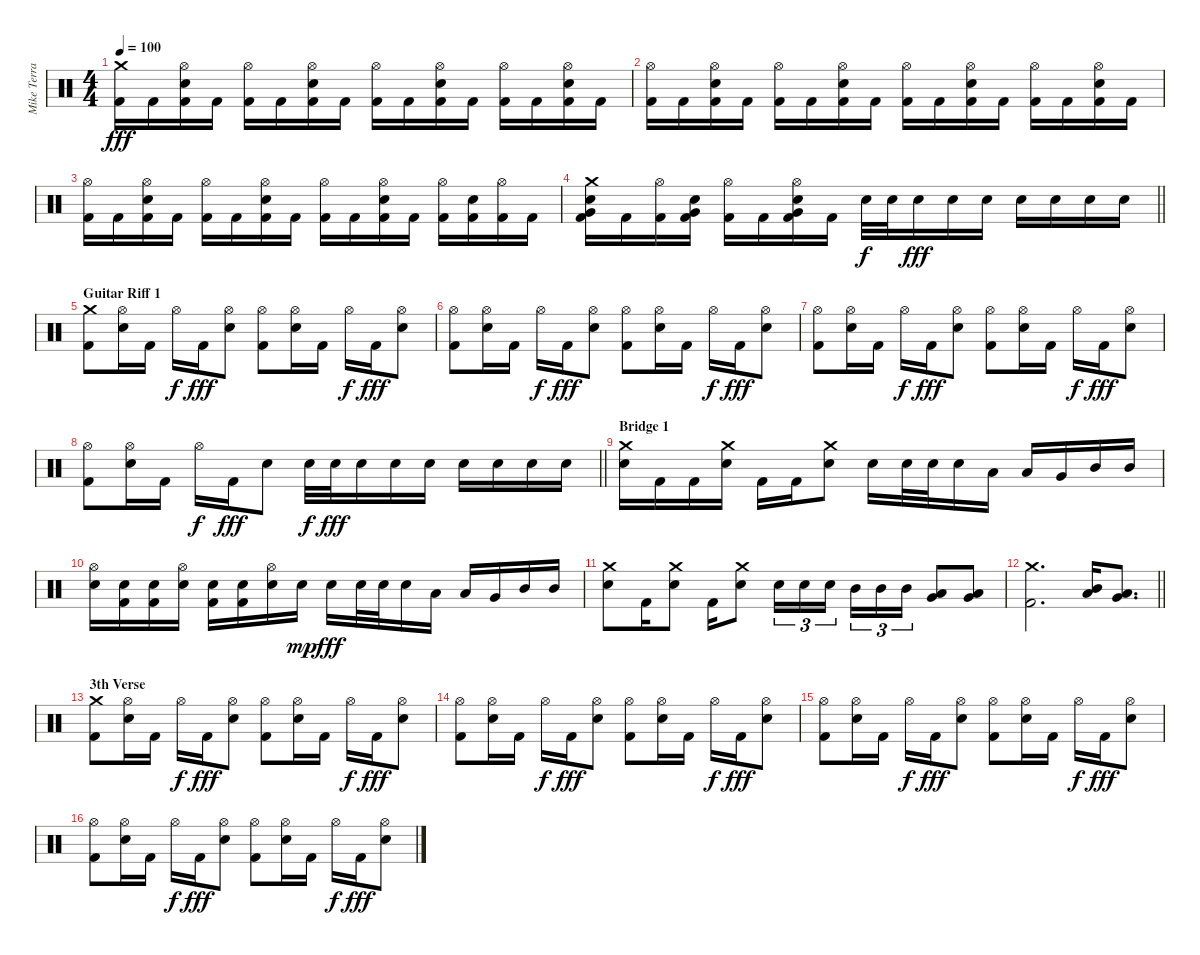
\track ("Mike Terrana" "Mike Terra") {instrument percussion}
\staff {score}
\articulation defaults
\ts (4 4)
\tempo 100
\clef neutral
\ks c
("Crash medium (hit)" "Kick (hit) 2").16{dy fff} "Kick (hit) 2".16 ("Hi-Hat (open)" "Snare (hit) 2" "Kick (hit) 2").16 "Kick (hit) 2".16 ("Hi-Hat (open)" "Kick (hit) 2").16 "Kick (hit) 2".16 ("Hi-Hat (open)" "Snare (hit) 2" "Kick (hit) 2").16 "Kick (hit) 2".16 ("Hi-Hat (open)" "Kick (hit) 2").16 "Kick (hit) 2".16 ("Hi-Hat (open)" "Snare (hit) 2" "Kick (hit) 2").16 "Kick (hit) 2".16 ("Hi-Hat (open)" "Kick (hit) 2").16 "Kick (hit) 2".16 ("Hi-Hat (open)" "Snare (hit) 2" "Kick (hit) 2").16 "Kick (hit) 2".16 |
("Hi-Hat (open)" "Kick (hit) 2").16 "Kick (hit) 2".16 ("Hi-Hat (open)" "Snare (hit) 2" "Kick (hit) 2").16 "Kick (hit) 2".16 ("Hi-Hat (open)" "Kick (hit) 2").16 "Kick (hit) 2".16 ("Hi-Hat (open)" "Snare (hit) 2" "Kick (hit) 2").16 "Kick (hit) 2".16 ("Hi-Hat (open)" "Kick (hit) 2").16 "Kick (hit) 2".16 ("Hi-Hat (open)" "Snare (hit) 2" "Kick (hit) 2").16 "Kick (hit) 2".16 ("Hi-Hat (open)" "Kick (hit) 2").16 "Kick (hit) 2".16 ("Hi-Hat (open)" "Snare (hit) 2" "Kick (hit) 2").16 "Kick (hit) 2".16 |
("Hi-Hat (open)" "Kick (hit) 2").16 "Kick (hit) 2".16 ("Hi-Hat (open)" "Snare (hit) 2" "Kick (hit) 2").16 "Kick (hit) 2".16 ("Hi-Hat (open)" "Kick (hit) 2").16 "Kick (hit) 2".16 ("Hi-Hat (open)" "Snare (hit) 2" "Kick (hit) 2").16 "Kick (hit) 2".16 ("Hi-Hat (open)" "Kick (hit) 2").16 "Kick (hit) 2".16 ("Hi-Hat (open)" "Snare (hit) 2" "Kick (hit) 2").16 "Kick (hit) 2".16 ("Hi-Hat (open)" "Kick (hit) 2").16 ("Snare (hit) 2" "Kick (hit) 2").16 ("Hi-Hat (open)" "Kick (hit) 2").16 "Kick (hit) 2".16 |
\barLineRight lightlight
("Crash medium (hit)" "Snare (hit) 2" "Very Low Tom (hit)" "Kick (hit) 2").16 "Kick (hit) 2".16 ("Hi-Hat (open)" "Kick (hit) 2").16 ("Snare (hit) 2" "Very Low Tom (hit)" "Kick (hit) 2").16 ("Hi-Hat (open)" "Kick (hit) 2").16 "Kick (hit) 2".16 ("Hi-Hat (open)" "Snare (hit) 2" "Very Low Tom (hit)" "Kick (hit) 2").16 "Kick (hit) 2".16 "Snare (hit) 2".32{dy f} "Snare (hit) 2".32 "Snare (hit) 2".16{dy fff} "Snare (hit) 2".16 "Snare (hit) 2".16 "Snare (hit) 2".16 "Snare (hit) 2".16 "Snare (hit) 2".16 "Snare (hit) 2".16 |
\section ("" "Guitar Riff 1")
("Crash medium (hit)" "Kick (hit) 2").8 ("Hi-Hat (open)" "Snare (hit) 2").16 "Kick (hit) 2".16 "Hi-Hat (open)".16{dy f} "Kick (hit) 2".16{dy fff} ("Hi-Hat (open)" "Snare (hit) 2").8 ("Hi-Hat (open)" "Kick (hit) 2").8 ("Hi-Hat (open)" "Snare (hit) 2").16 "Kick (hit) 2".16 "Hi-Hat (open)".16{dy f} "Kick (hit) 2".16{dy fff} ("Hi-Hat (open)" "Snare (hit) 2").8 |
("Hi-Hat (open)" "Kick (hit) 2").8 ("Hi-Hat (open)" "Snare (hit) 2").16 "Kick (hit) 2".16 "Hi-Hat (open)".16{dy f} "Kick (hit) 2".16{dy fff} ("Hi-Hat (open)" "Snare (hit) 2").8 ("Hi-Hat (open)" "Kick (hit) 2").8 ("Hi-Hat (open)" "Snare (hit) 2").16 "Kick (hit) 2".16 "Hi-Hat (open)".16{dy f} "Kick (hit) 2".16{dy fff} ("Hi-Hat (open)" "Snare (hit) 2").8 |
("Hi-Hat (open)" "Kick (hit) 2").8 ("Hi-Hat (open)" "Snare (hit) 2").16 "Kick (hit) 2".16 "Hi-Hat (open)".16{dy f} "Kick (hit) 2".16{dy fff} ("Hi-Hat (open)" "Snare (hit) 2").8 ("Hi-Hat (open)" "Kick (hit) 2").8 ("Hi-Hat (open)" "Snare (hit) 2").16 "Kick (hit) 2".16 "Hi-Hat (open)".16{dy f} "Kick (hit) 2".16{dy fff} ("Hi-Hat (open)" "Snare (hit) 2").8 |
\barLineRight lightlight
("Hi-Hat (open)" "Kick (hit) 2").8 ("Hi-Hat (open)" "Snare (hit) 2").16 "Kick (hit) 2".16 "Hi-Hat (open)".16{dy f} "Kick (hit) 2".16{dy fff} "Snare (hit) 2".8 "Snare (hit) 2".32{dy f} "Snare (hit) 2".32{dy fff} "Snare (hit) 2".16 "Snare (hit) 2".16 "Snare (hit) 2".16 "Snare (hit) 2".16 "Snare (hit) 2".16 "Snare (hit) 2".16 "Snare (hit) 2".16 |
\section ("" "Bridge 1")
("Crash medium (hit)" "Snare (hit) 2").16 "Kick (hit) 2".16 "Kick (hit) 2".16 ("Crash medium (hit)" "Snare (hit) 2").16 "Kick (hit) 2".16 "Kick (hit) 2".16 ("Crash medium (hit)" "Snare (hit) 2").8 "Snare (hit) 2".16 "Snare (hit) 2".32 "Snare (hit) 2".32 "Snare (hit) 2".16 "Low Tom (hit)".16 "Low Tom (hit)".16 "Very Low Tom (hit)".16 "Mid Tom (hit)".16 "Mid Tom (hit)".16 |
("Hi-Hat (open)" "Snare (hit) 2").16 ("Snare (hit) 2" "Kick (hit) 2").16 ("Snare (hit) 2" "Kick (hit) 2").16 ("Hi-Hat (open)" "Snare (hit) 2").16 ("Snare (hit) 2" "Kick (hit) 2").16 ("Snare (hit) 2" "Kick (hit) 2").16 ("Hi-Hat (open)" "Snare (hit) 2").16 "Snare (hit) 2".16{dy mp} "Snare (hit) 2".16{dy fff} "Snare (hit) 2".32 "Snare (hit) 2".32 "Snare (hit) 2".16 "Low Tom (hit)".16 "Low Tom (hit)".16 "Very Low Tom (hit)".16 "Mid Tom (hit)".16 "Mid Tom (hit)".16 |
("Crash medium (hit)" "Snare (hit) 2").8 "Kick (hit) 2".16 ("Crash medium (hit)" "Snare (hit) 2").8 "Kick (hit) 2".16 ("Crash medium (hit)" "Snare (hit) 2").8 "Snare (hit) 2".16{tu (3 2)} "Snare (hit) 2".16{tu (3 2)} "Snare (hit) 2".16{tu (3 2) beam splitsecondary} "Mid Tom (hit)".16{tu (3 2)} "Mid Tom (hit)".16{tu (3 2)} "Mid Tom (hit)".16{tu (3 2)} ("Low Tom (hit)" "Very Low Tom (hit)").8 ("Very Low Tom (hit)" "Low Floor Tom (hit)").8 |
\barLineRight lightlight
("Crash medium (hit)" "Kick (hit) 2").2{d} ("Mid Tom (hit)" "Low Tom (hit)").16 ("Low Tom (hit)" "Very Low Tom (hit)").8{d} |
\section ("" "3th Verse")
("Crash medium (hit)" "Kick (hit) 2").8 ("Hi-Hat (open)" "Snare (hit) 2").16 "Kick (hit) 2".16 "Hi-Hat (open)".16{dy f} "Kick (hit) 2".16{dy fff} ("Hi-Hat (open)" "Snare (hit) 2").8 ("Hi-Hat (open)" "Kick (hit) 2").8 ("Hi-Hat (open)" "Snare (hit) 2").16 "Kick (hit) 2".16 "Hi-Hat (open)".16{dy f} "Kick (hit) 2".16{dy fff} ("Hi-Hat (open)" "Snare (hit) 2").8 |
("Hi-Hat (open)" "Kick (hit) 2").8 ("Hi-Hat (open)" "Snare (hit) 2").16 "Kick (hit) 2".16 "Hi-Hat (open)".16{dy f} "Kick (hit) 2".16{dy fff} ("Hi-Hat (open)" "Snare (hit) 2").8 ("Hi-Hat (open)" "Kick (hit) 2").8 ("Hi-Hat (open)" "Snare (hit) 2").16 "Kick (hit) 2".16 "Hi-Hat (open)".16{dy f} "Kick (hit) 2".16{dy fff} ("Hi-Hat (open)" "Snare (hit) 2").8 |
("Hi-Hat (open)" "Kick (hit) 2").8 ("Hi-Hat (open)" "Snare (hit) 2").16 "Kick (hit) 2".16 "Hi-Hat (open)".16{dy f} "Kick (hit) 2".16{dy fff} ("Hi-Hat (open)" "Snare (hit) 2").8 ("Hi-Hat (open)" "Kick (hit) 2").8 ("Hi-Hat (open)" "Snare (hit) 2").16 "Kick (hit) 2".16 "Hi-Hat (open)".16{dy f} "Kick (hit) 2".16{dy fff} ("Hi-Hat (open)" "Snare (hit) 2").8 |
("Hi-Hat (open)" "Kick (hit) 2").8 ("Hi-Hat (open)" "Snare (hit) 2").16 "Kick (hit) 2".16 "Hi-Hat (open)".16{dy f} "Kick (hit) 2".16{dy fff} ("Hi-Hat (open)" "Snare (hit) 2").8 ("Hi-Hat (open)" "Kick (hit) 2").8 ("Hi-Hat (open)" "Snare (hit) 2").16 "Kick (hit) 2".16 "Hi-Hat (open)".16{dy f} "Kick (hit) 2".16{dy fff} ("Hi-Hat (open)" "Snare (hit) 2").8
